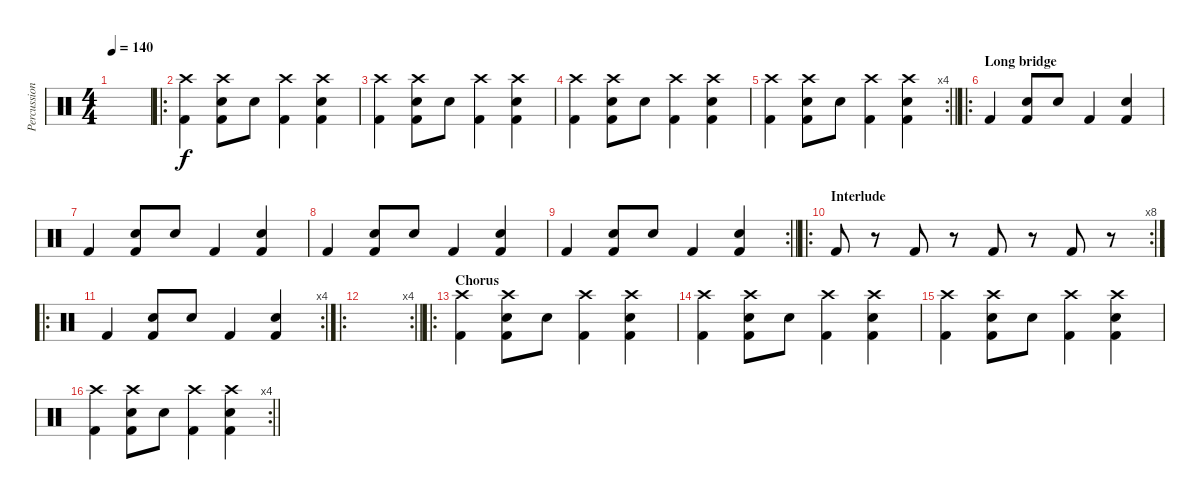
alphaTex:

\track ("Percussion" "Percussion") {instrument percussion}
\staff {score}
\articulation defaults
\ts (4 4)
\tempo 140
\clef neutral
\ks c
|
\ro
("Crash high (hit)" "Kick (hit) 2").4 ("Crash high (hit)" "Hand Clap (hit)" "Kick (hit) 2").8 "Hand Clap (hit)".8 ("Crash high (hit)" "Kick (hit) 2").4 ("Crash high (hit)" "Hand Clap (hit)" "Kick (hit) 2").4 |
("Crash high (hit)" "Kick (hit) 2").4 ("Crash high (hit)" "Hand Clap (hit)" "Kick (hit) 2").8 "Hand Clap (hit)".8 ("Crash high (hit)" "Kick (hit) 2").4 ("Crash high (hit)" "Hand Clap (hit)" "Kick (hit) 2").4 |
("Crash high (hit)" "Kick (hit) 2").4 ("Crash high (hit)" "Hand Clap (hit)" "Kick (hit) 2").8 "Hand Clap (hit)".8 ("Crash high (hit)" "Kick (hit) 2").4 ("Crash high (hit)" "Hand Clap (hit)" "Kick (hit) 2").4 |
\rc 4
\barLineRight lightlight
("Crash high (hit)" "Kick (hit) 2").4 ("Crash high (hit)" "Hand Clap (hit)" "Kick (hit) 2").8 "Hand Clap (hit)".8 ("Crash high (hit)" "Kick (hit) 2").4 ("Crash high (hit)" "Hand Clap (hit)" "Kick (hit) 2").4 |
\ro
\section ("" "Long bridge")
"Kick (hit) 2".4 ("Hand Clap (hit)" "Kick (hit) 2").8 "Hand Clap (hit)".8 "Kick (hit) 2".4 ("Hand Clap (hit)" "Kick (hit) 2").4 |
"Kick (hit) 2".4 ("Hand Clap (hit)" "Kick (hit) 2").8 "Hand Clap (hit)".8 "Kick (hit) 2".4 ("Hand Clap (hit)" "Kick (hit) 2").4 |
"Kick (hit) 2".4 ("Hand Clap (hit)" "Kick (hit) 2").8 "Hand Clap (hit)".8 "Kick (hit) 2".4 ("Hand Clap (hit)" "Kick (hit) 2").4 |
\rc 2
\barLineRight lightlight "Kick (hit) 2".4
("Hand Clap (hit)" "Kick (hit) 2").8 "Hand Clap (hit)".8 "Kick (hit) 2".4 ("Hand Clap (hit)" "Kick (hit) 2").4 |
\ro
\rc 8
\section ("" "Interlude")
"Kick (hit) 2".8 r.8 "Kick (hit) 2".8 r.8 "Kick (hit) 2".8 r.8 "Kick (hit) 2".8 r.8 |
\ro
\rc 4 "Kick (hit) 2".4
("Hand Clap (hit)" "Kick (hit) 2").8 "Hand Clap (hit)".8 "Kick (hit) 2".4 ("Hand Clap (hit)" "Kick (hit) 2").4 |
\ro
\rc 4
\barLineRight lightlight
|
\ro
\section ("" "Chorus")
("Crash high (hit)" "Kick (hit) 2").4 ("Crash high (hit)" "Hand Clap (hit)" "Kick (hit) 2").8 "Hand Clap (hit)".8 ("Crash high (hit)" "Kick (hit) 2").4 ("Crash high (hit)" "Hand Clap (hit)" "Kick (hit) 2").4 |
("Crash high (hit)" "Kick (hit) 2").4 ("Crash high (hit)" "Hand Clap (hit)" "Kick (hit) 2").8 "Hand Clap (hit)".8 ("Crash high (hit)" "Kick (hit) 2").4 ("Crash high (hit)" "Hand Clap (hit)" "Kick (hit) 2").4 |
("Crash high (hit)" "Kick (hit) 2").4 ("Crash high (hit)" "Hand Clap (hit)" "Kick (hit) 2").8 "Hand Clap (hit)".8 ("Crash high (hit)" "Kick (hit) 2").4 ("Crash high (hit)" "Hand Clap (hit)" "Kick (hit) 2").4 |
\rc 4
\barLineRight lightlight
("Crash high (hit)" "Kick (hit) 2").4 ("Crash high (hit)" "Hand Clap (hit)" "Kick (hit) 2").8 "Hand Clap (hit)".8 ("Crash high (hit)" "Kick (hit) 2").4 ("Crash high (hit)" "Hand Clap (hit)" "Kick (hit) 2").4
